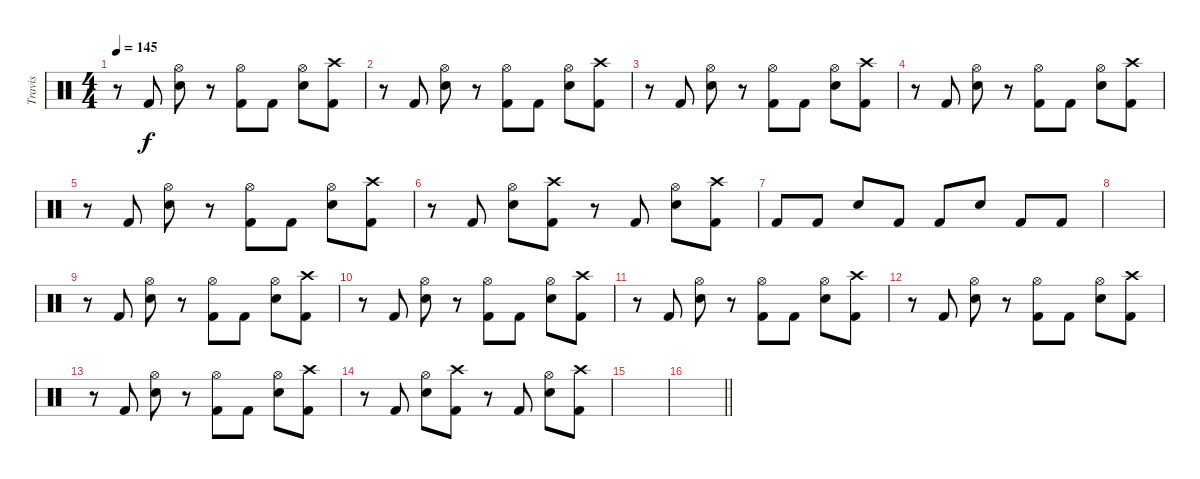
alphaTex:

\track ("Travis" "Travis") {instrument percussion}
\staff {score}
\articulation defaults
\ts (4 4)
\tempo 145
\clef neutral
\ks c
r.8{dy f} "Kick (hit) 2".8 ("Hi-Hat (open)" "Electric Snare (hit)").8 r.8 ("Hi-Hat (open)" "Kick (hit) 2").8 "Kick (hit) 2".8 ("Hi-Hat (open)" "Electric Snare (hit)").8 ("Crash high (hit)" "Kick (hit) 2").8 |
r.8 "Kick (hit) 2".8 ("Hi-Hat (open)" "Electric Snare (hit)").8 r.8 ("Hi-Hat (open)" "Kick (hit) 2").8 "Kick (hit) 2".8 ("Hi-Hat (open)" "Electric Snare (hit)").8 ("Crash high (hit)" "Kick (hit) 2").8 |
r.8 "Kick (hit) 2".8 ("Hi-Hat (open)" "Electric Snare (hit)").8 r.8 ("Hi-Hat (open)" "Kick (hit) 2").8 "Kick (hit) 2".8 ("Hi-Hat (open)" "Electric Snare (hit)").8 ("Crash high (hit)" "Kick (hit) 2").8 |
r.8 "Kick (hit) 2".8 ("Hi-Hat (open)" "Electric Snare (hit)").8 r.8 ("Hi-Hat (open)" "Kick (hit) 2").8 "Kick (hit) 2".8 ("Hi-Hat (open)" "Electric Snare (hit)").8 ("Crash high (hit)" "Kick (hit) 2").8 |
r.8 "Kick (hit) 2".8 ("Hi-Hat (open)" "Electric Snare (hit)").8 r.8 ("Hi-Hat (open)" "Kick (hit) 2").8 "Kick (hit) 2".8 ("Hi-Hat (open)" "Electric Snare (hit)").8 ("Crash high (hit)" "Kick (hit) 2").8 |
r.8 "Kick (hit) 2".8 ("Hi-Hat (open)" "Electric Snare (hit)").8 ("Crash high (hit)" "Kick (hit) 2").8 r.8 "Kick (hit) 2".8 ("Hi-Hat (open)" "Electric Snare (hit)").8 ("Crash high (hit)" "Kick (hit) 2").8 |
"Kick (hit) 2".8 "Kick (hit) 2".8 "Electric Snare (hit)".8 "Kick (hit) 2".8 "Kick (hit) 2".8 "Electric Snare (hit)".8 "Kick (hit) 2".8 "Kick (hit) 2".8 |
|
r.8 "Kick (hit) 2".8 ("Hi-Hat (open)" "Electric Snare (hit)").8 r.8 ("Hi-Hat (open)" "Kick (hit) 2").8 "Kick (hit) 2".8 ("Hi-Hat (open)" "Electric Snare (hit)").8 ("Crash high (hit)" "Kick (hit) 2").8 |
r.8 "Kick (hit) 2".8 ("Hi-Hat (open)" "Electric Snare (hit)").8 r.8 ("Hi-Hat (open)" "Kick (hit) 2").8 "Kick (hit) 2".8 ("Hi-Hat (open)" "Electric Snare (hit)").8 ("Crash high (hit)" "Kick (hit) 2").8 |
r.8 "Kick (hit) 2".8 ("Hi-Hat (open)" "Electric Snare (hit)").8 r.8 ("Hi-Hat (open)" "Kick (hit) 2").8 "Kick (hit) 2".8 ("Hi-Hat (open)" "Electric Snare (hit)").8 ("Crash high (hit)" "Kick (hit) 2").8 |
r.8 "Kick (hit) 2".8 ("Hi-Hat (open)" "Electric Snare (hit)").8 r.8 ("Hi-Hat (open)" "Kick (hit) 2").8 "Kick (hit) 2".8 ("Hi-Hat (open)" "Electric Snare (hit)").8 ("Crash high (hit)" "Kick (hit) 2").8 |
r.8 "Kick (hit) 2".8 ("Hi-Hat (open)" "Electric Snare (hit)").8 r.8 ("Hi-Hat (open)" "Kick (hit) 2").8 "Kick (hit) 2".8 ("Hi-Hat (open)" "Electric Snare (hit)").8 ("Crash high (hit)" "Kick (hit) 2").8 |
r.8 "Kick (hit) 2".8 ("Hi-Hat (open)" "Electric Snare (hit)").8 ("Crash high (hit)" "Kick (hit) 2").8 r.8 "Kick (hit) 2".8 ("Hi-Hat (open)" "Electric Snare (hit)").8 ("Crash high (hit)" "Kick (hit) 2").8 |
|
\barLineRight lightlight
